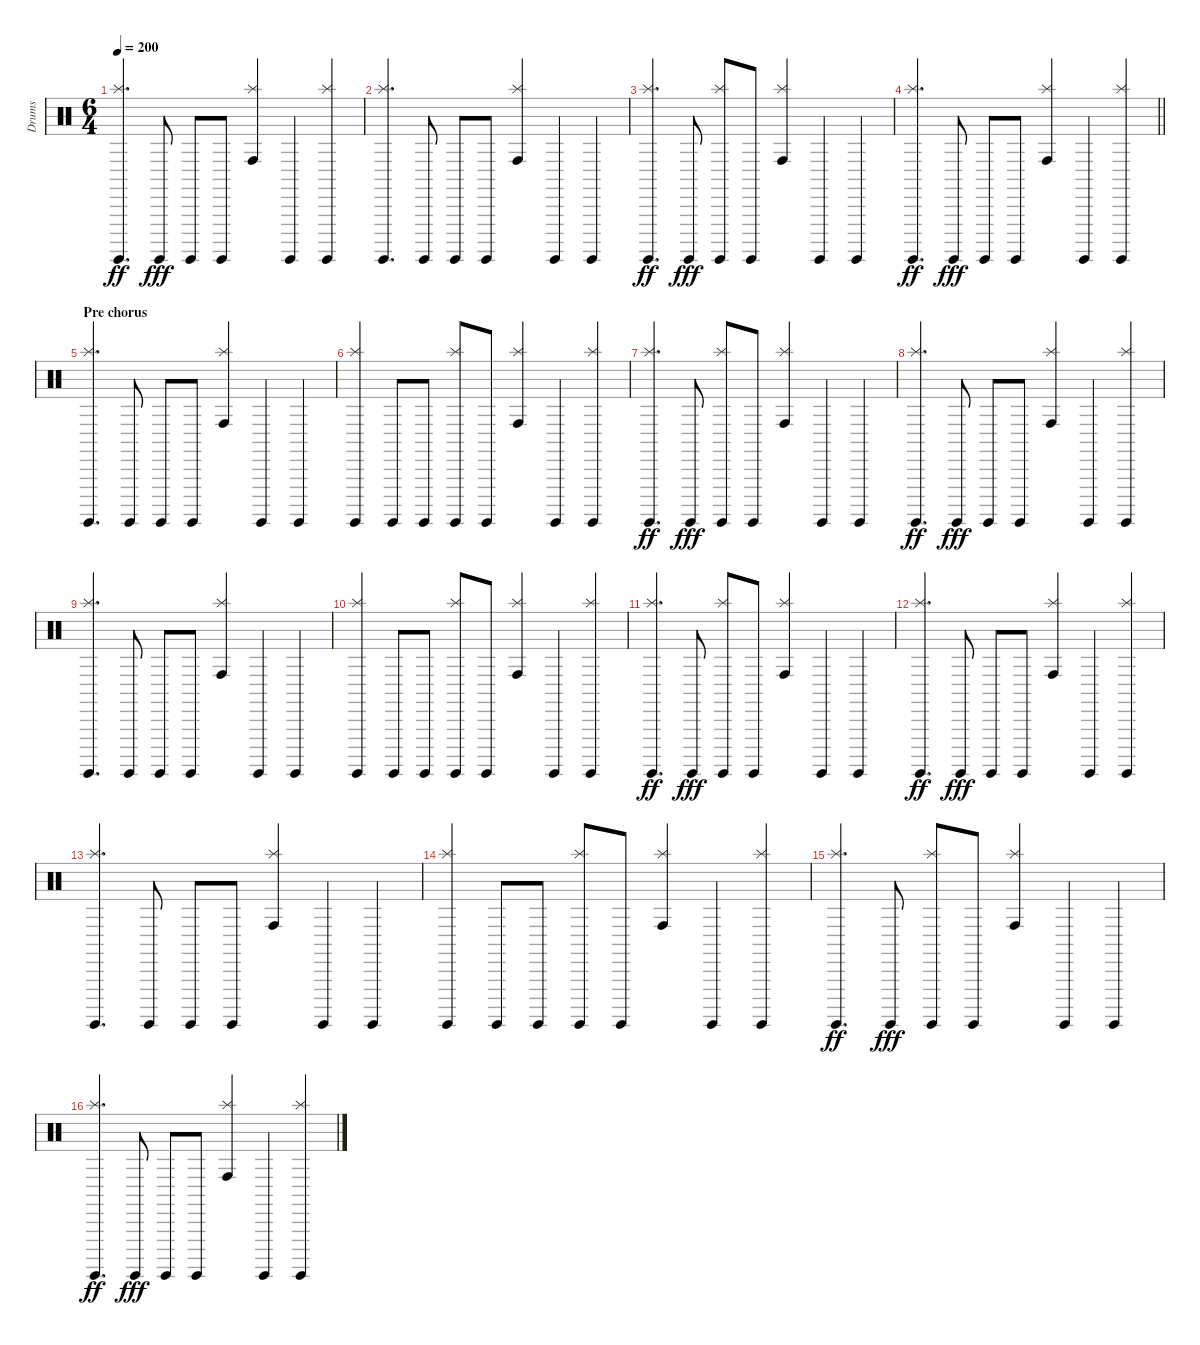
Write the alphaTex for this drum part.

\track ("Drums" "Drums") {instrument percussion}
\staff {score}
\articulation defaults
\ts (6 4)
\tempo 200
\clef neutral
\ks c
("Splash (hit)" "Surdo (hit)").4{d dy ff} "Surdo (hit)".8{dy fff} "Surdo (hit)".8 "Surdo (hit)".8 ("Splash (hit)" "Conga high (hit)").4 "Surdo (hit)".4 ("Splash (hit)" "Surdo (hit)").4 |
("Splash (hit)" "Surdo (hit)").4{d} "Surdo (hit)".8 "Surdo (hit)".8 "Surdo (hit)".8 ("Splash (hit)" "Conga high (hit)").4 "Surdo (hit)".4 "Surdo (hit)".4 |
("Splash (hit)" "Surdo (hit)").4{d dy ff} "Surdo (hit)".8{dy fff} ("Splash (hit)" "Surdo (hit)").8 "Surdo (hit)".8 ("Splash (hit)" "Conga high (hit)").4 "Surdo (hit)".4 "Surdo (hit)".4 |
\barLineRight lightlight
("Splash (hit)" "Surdo (hit)").4{d dy ff} "Surdo (hit)".8{dy fff} "Surdo (hit)".8 "Surdo (hit)".8 ("Splash (hit)" "Conga high (hit)").4 "Surdo (hit)".4 ("Splash (hit)" "Surdo (hit)").4 |
\section ("" "Pre chorus")
("Splash (hit)" "Surdo (hit)").4{d} "Surdo (hit)".8 "Surdo (hit)".8 "Surdo (hit)".8 ("Splash (hit)" "Conga high (hit)").4 "Surdo (hit)".4 "Surdo (hit)".4 |
("Splash (hit)" "Surdo (hit)").4 "Surdo (hit)".8 "Surdo (hit)".8 ("Splash (hit)" "Surdo (hit)").8 "Surdo (hit)".8 ("Splash (hit)" "Conga high (hit)").4 "Surdo (hit)".4 ("Splash (hit)" "Surdo (hit)").4 |
("Splash (hit)" "Surdo (hit)").4{d dy ff} "Surdo (hit)".8{dy fff} ("Splash (hit)" "Surdo (hit)").8 "Surdo (hit)".8 ("Splash (hit)" "Conga high (hit)").4 "Surdo (hit)".4 "Surdo (hit)".4 |
("Splash (hit)" "Surdo (hit)").4{d dy ff} "Surdo (hit)".8{dy fff} "Surdo (hit)".8 "Surdo (hit)".8 ("Splash (hit)" "Conga high (hit)").4 "Surdo (hit)".4 ("Splash (hit)" "Surdo (hit)").4 |
("Splash (hit)" "Surdo (hit)").4{d} "Surdo (hit)".8 "Surdo (hit)".8 "Surdo (hit)".8 ("Splash (hit)" "Conga high (hit)").4 "Surdo (hit)".4 "Surdo (hit)".4 |
("Splash (hit)" "Surdo (hit)").4 "Surdo (hit)".8 "Surdo (hit)".8 ("Splash (hit)" "Surdo (hit)").8 "Surdo (hit)".8 ("Splash (hit)" "Conga high (hit)").4 "Surdo (hit)".4 ("Splash (hit)" "Surdo (hit)").4 |
("Splash (hit)" "Surdo (hit)").4{d dy ff} "Surdo (hit)".8{dy fff} ("Splash (hit)" "Surdo (hit)").8 "Surdo (hit)".8 ("Splash (hit)" "Conga high (hit)").4 "Surdo (hit)".4 "Surdo (hit)".4 |
("Splash (hit)" "Surdo (hit)").4{d dy ff} "Surdo (hit)".8{dy fff} "Surdo (hit)".8 "Surdo (hit)".8 ("Splash (hit)" "Conga high (hit)").4 "Surdo (hit)".4 ("Splash (hit)" "Surdo (hit)").4 |
("Splash (hit)" "Surdo (hit)").4{d} "Surdo (hit)".8 "Surdo (hit)".8 "Surdo (hit)".8 ("Splash (hit)" "Conga high (hit)").4 "Surdo (hit)".4 "Surdo (hit)".4 |
("Splash (hit)" "Surdo (hit)").4 "Surdo (hit)".8 "Surdo (hit)".8 ("Splash (hit)" "Surdo (hit)").8 "Surdo (hit)".8 ("Splash (hit)" "Conga high (hit)").4 "Surdo (hit)".4 ("Splash (hit)" "Surdo (hit)").4 |
("Splash (hit)" "Surdo (hit)").4{d dy ff} "Surdo (hit)".8{dy fff} ("Splash (hit)" "Surdo (hit)").8 "Surdo (hit)".8 ("Splash (hit)" "Conga high (hit)").4 "Surdo (hit)".4 "Surdo (hit)".4 |
("Splash (hit)" "Surdo (hit)").4{d dy ff} "Surdo (hit)".8{dy fff} "Surdo (hit)".8 "Surdo (hit)".8 ("Splash (hit)" "Conga high (hit)").4 "Surdo (hit)".4 ("Splash (hit)" "Surdo (hit)").4
